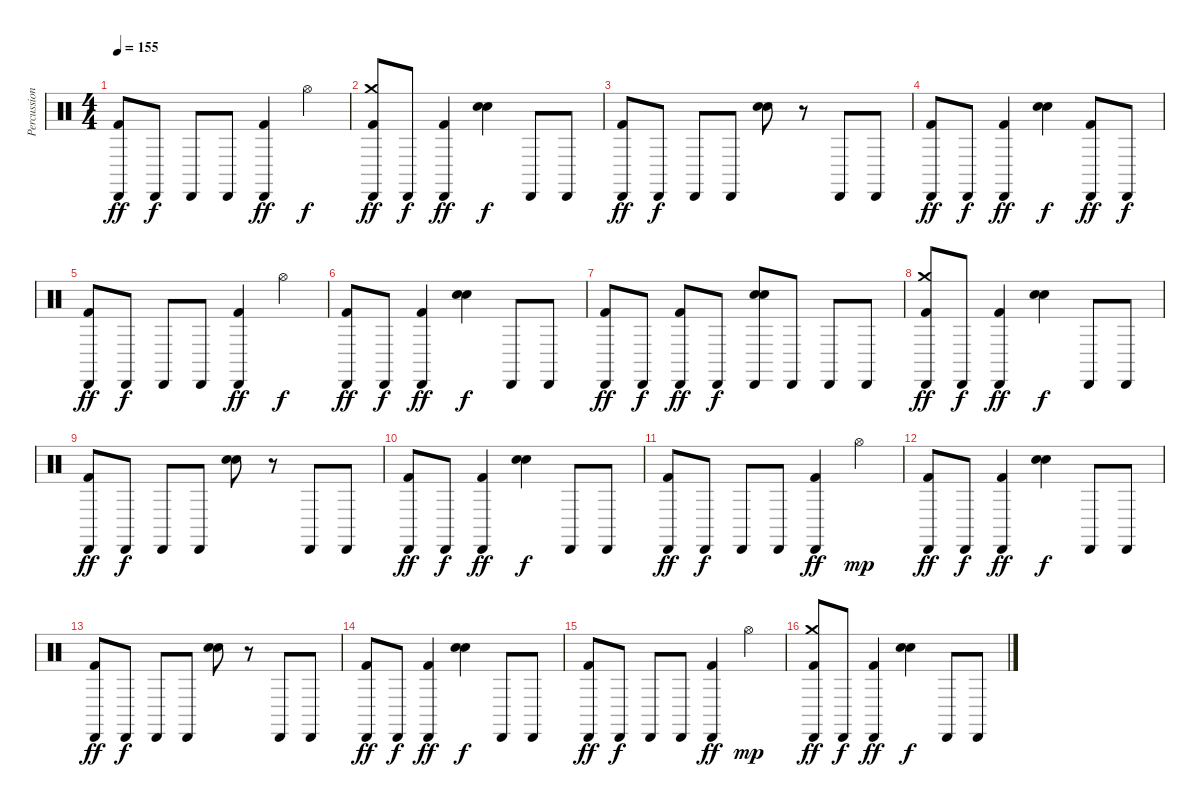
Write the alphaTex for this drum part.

\track ("Percussion" "Percussion") {instrument percussion}
\staff {score}
\articulation defaults
\ts (4 4)
\tempo 155
\clef neutral
\ks c
("Cabasa (hit)" "Kick (hit) 2").8{dy ff} "Cabasa (hit)".8{dy f} "Cabasa (hit)".8 "Cabasa (hit)".8 ("Cabasa (hit)" "Kick (hit) 2").4{dy ff} "Hi-Hat (open)".4{dy f} |
("Cabasa (hit)" "Kick (hit) 2" "Crash medium (hit)").8{dy ff} "Cabasa (hit)".8{dy f} ("Cabasa (hit)" "Kick (hit) 2").4{dy ff} ("Electric Snare (hit)" "Hand Clap (hit)").4{dy f} "Cabasa (hit)".8 "Cabasa (hit)".8 |
("Cabasa (hit)" "Kick (hit) 2").8{dy ff} "Cabasa (hit)".8{dy f} "Cabasa (hit)".8 "Cabasa (hit)".8 ("Electric Snare (hit)" "Hand Clap (hit)").8 r.8 "Cabasa (hit)".8 "Cabasa (hit)".8 |
("Cabasa (hit)" "Kick (hit) 2").8{dy ff} "Cabasa (hit)".8{dy f} ("Cabasa (hit)" "Kick (hit) 2").4{dy ff} ("Electric Snare (hit)" "Hand Clap (hit)").4{dy f} ("Cabasa (hit)" "Kick (hit) 2").8{dy ff} "Cabasa (hit)".8{dy f} |
("Cabasa (hit)" "Kick (hit) 2").8{dy ff} "Cabasa (hit)".8{dy f} "Cabasa (hit)".8 "Cabasa (hit)".8 ("Cabasa (hit)" "Kick (hit) 2").4{dy ff} "Hi-Hat (open)".4{dy f} |
("Cabasa (hit)" "Kick (hit) 2").8{dy ff} "Cabasa (hit)".8{dy f} ("Cabasa (hit)" "Kick (hit) 2").4{dy ff} ("Electric Snare (hit)" "Hand Clap (hit)").4{dy f} "Cabasa (hit)".8 "Cabasa (hit)".8 |
("Cabasa (hit)" "Kick (hit) 2").8{dy ff} "Cabasa (hit)".8{dy f} ("Cabasa (hit)" "Kick (hit) 2").8{dy ff} "Cabasa (hit)".8{dy f} ("Cabasa (hit)" "Electric Snare (hit)" "Hand Clap (hit)").8 "Cabasa (hit)".8 "Cabasa (hit)".8 "Cabasa (hit)".8 |
("Cabasa (hit)" "Kick (hit) 2" "Crash medium (hit)").8{dy ff} "Cabasa (hit)".8{dy f} ("Cabasa (hit)" "Kick (hit) 2").4{dy ff} ("Electric Snare (hit)" "Hand Clap (hit)").4{dy f} "Cabasa (hit)".8 "Cabasa (hit)".8 |
("Cabasa (hit)" "Kick (hit) 2").8{dy ff} "Cabasa (hit)".8{dy f} "Cabasa (hit)".8 "Cabasa (hit)".8 ("Electric Snare (hit)" "Hand Clap (hit)").8 r.8 "Cabasa (hit)".8 "Cabasa (hit)".8 |
("Cabasa (hit)" "Kick (hit) 2").8{dy ff} "Cabasa (hit)".8{dy f} ("Cabasa (hit)" "Kick (hit) 2").4{dy ff} ("Electric Snare (hit)" "Hand Clap (hit)").4{dy f} "Cabasa (hit)".8 "Cabasa (hit)".8 |
("Cabasa (hit)" "Kick (hit) 2").8{dy ff} "Cabasa (hit)".8{dy f} "Cabasa (hit)".8 "Cabasa (hit)".8 ("Cabasa (hit)" "Kick (hit) 2").4{dy ff} "Hi-Hat (open)".4{dy mp} |
("Cabasa (hit)" "Kick (hit) 2").8{dy ff} "Cabasa (hit)".8{dy f} ("Cabasa (hit)" "Kick (hit) 2").4{dy ff} ("Electric Snare (hit)" "Hand Clap (hit)").4{dy f} "Cabasa (hit)".8 "Cabasa (hit)".8 |
("Cabasa (hit)" "Kick (hit) 2").8{dy ff} "Cabasa (hit)".8{dy f} "Cabasa (hit)".8 "Cabasa (hit)".8 ("Electric Snare (hit)" "Hand Clap (hit)").8 r.8 "Cabasa (hit)".8 "Cabasa (hit)".8 |
("Cabasa (hit)" "Kick (hit) 2").8{dy ff} "Cabasa (hit)".8{dy f} ("Cabasa (hit)" "Kick (hit) 2").4{dy ff} ("Electric Snare (hit)" "Hand Clap (hit)").4{dy f} "Cabasa (hit)".8 "Cabasa (hit)".8 |
("Cabasa (hit)" "Kick (hit) 2").8{dy ff} "Cabasa (hit)".8{dy f} "Cabasa (hit)".8 "Cabasa (hit)".8 ("Cabasa (hit)" "Kick (hit) 2").4{dy ff} "Hi-Hat (open)".4{dy mp} |
("Cabasa (hit)" "Kick (hit) 2" "Crash medium (hit)").8{dy ff} "Cabasa (hit)".8{dy f} ("Cabasa (hit)" "Kick (hit) 2").4{dy ff} ("Electric Snare (hit)" "Hand Clap (hit)").4{dy f} "Cabasa (hit)".8 "Cabasa (hit)".8
